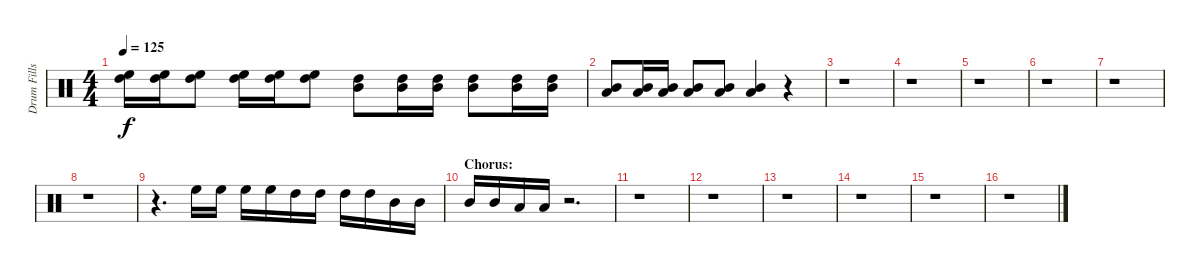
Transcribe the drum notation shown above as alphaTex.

\track ("Drum Fills" "Drum Fills") {instrument percussion}
\staff {score}
\articulation defaults
\ts (4 4)
\tempo 125
\clef neutral
\ks c
("High Tom (hit)" "High Floor Tom (hit)").16{dy f volume 12} ("High Tom (hit)" "High Floor Tom (hit)").16 ("High Tom (hit)" "High Floor Tom (hit)").8 ("High Tom (hit)" "High Floor Tom (hit)").16 ("High Tom (hit)" "High Floor Tom (hit)").16 ("High Tom (hit)" "High Floor Tom (hit)").8 ("Mid Tom (hit)" "High Tom (hit)").8 ("Mid Tom (hit)" "High Tom (hit)").16 ("Mid Tom (hit)" "High Tom (hit)").16 ("Mid Tom (hit)" "High Tom (hit)").8 ("Mid Tom (hit)" "High Tom (hit)").16 ("Mid Tom (hit)" "High Tom (hit)").16 |
("Low Tom (hit)" "Mid Tom (hit)").8 ("Low Tom (hit)" "Mid Tom (hit)").16 ("Low Tom (hit)" "Mid Tom (hit)").16 ("Low Tom (hit)" "Mid Tom (hit)").8 ("Low Tom (hit)" "Mid Tom (hit)").8 ("Low Tom (hit)" "Mid Tom (hit)").4 r.4 |
r.1{volume 14} |
r.1 |
r.1 |
r.1 |
r.1 |
r.1 |
r.4{d} "High Floor Tom (hit)".16 "High Floor Tom (hit)".16 "High Floor Tom (hit)".16 "High Floor Tom (hit)".16 "High Tom (hit)".16 "High Tom (hit)".16 "High Tom (hit)".16 "High Tom (hit)".16 "Mid Tom (hit)".16 "Mid Tom (hit)".16 |
\section ("" "Chorus:")
"Mid Tom (hit)".16 "Mid Tom (hit)".16 "Low Tom (hit)".16 "Low Tom (hit)".16 r.2{d} |
r.1 |
r.1 |
r.1 |
r.1 |
r.1 |
r.1
